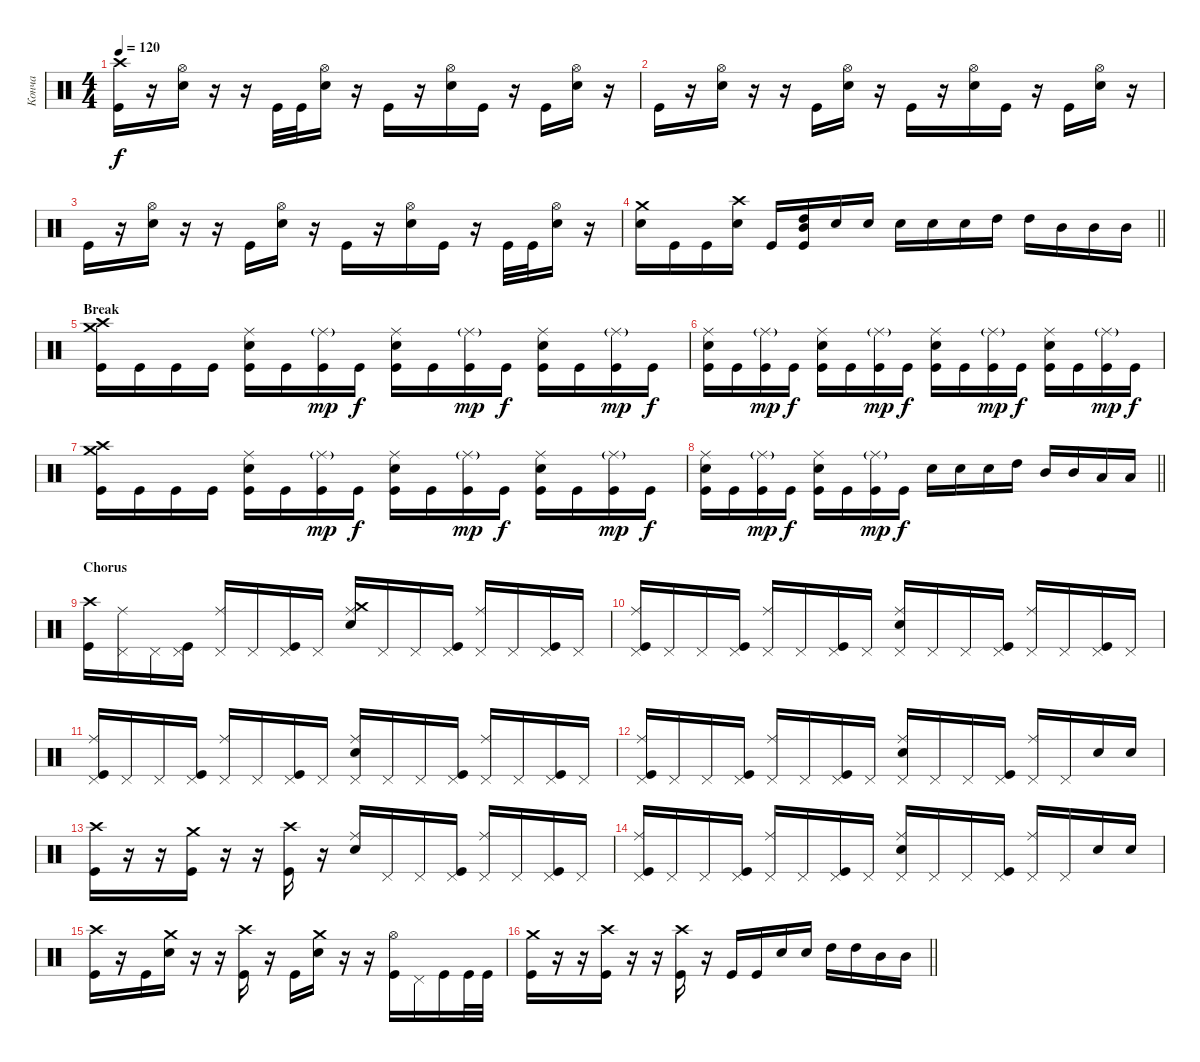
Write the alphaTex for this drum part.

\track ("Конча" "Конча") {instrument percussion}
\staff {score}
\articulation defaults
\ts (4 4)
\tempo 120
\clef neutral
\ks c
("Kick (hit)" "Crash high (hit)").16{dy f} r.16 ("Hi-Hat (open)" "Electric Snare (hit)").16 r.16 r.16 "Kick (hit)".32 "Kick (hit)".32 ("Hi-Hat (open)" "Electric Snare (hit)").16 r.16 "Kick (hit)".16 r.16 ("Hi-Hat (open)" "Electric Snare (hit)").16 "Kick (hit)".16 r.16 "Kick (hit)".16 ("Hi-Hat (open)" "Electric Snare (hit)").16 r.16 |
"Kick (hit)".16 r.16 ("Hi-Hat (open)" "Electric Snare (hit)").16 r.16 r.16 "Kick (hit)".16 ("Hi-Hat (open)" "Electric Snare (hit)").16 r.16 "Kick (hit)".16 r.16 ("Hi-Hat (open)" "Electric Snare (hit)").16 "Kick (hit)".16 r.16 "Kick (hit)".16 ("Hi-Hat (open)" "Electric Snare (hit)").16 r.16 |
"Kick (hit)".16 r.16 ("Hi-Hat (open)" "Electric Snare (hit)").16 r.16 r.16 "Kick (hit)".16 ("Hi-Hat (open)" "Electric Snare (hit)").16 r.16 "Kick (hit)".16 r.16 ("Hi-Hat (open)" "Electric Snare (hit)").16 "Kick (hit)".16 r.16 "Kick (hit)".32 "Kick (hit)".32 ("Hi-Hat (open)" "Electric Snare (hit)").16 r.16 |
\barLineRight lightlight
("Crash medium (hit)" "Electric Snare (hit)").16 "Kick (hit)".16 "Kick (hit)".16 ("Crash high (hit)" "Electric Snare (hit)").16 "Kick (hit)".16 ("High Tom (hit)" "Mid Tom (hit)" "Kick (hit)").16 "Electric Snare (hit)".16 "Electric Snare (hit)".16 "Electric Snare (hit)".16 "Electric Snare (hit)".16 "Electric Snare (hit)".16 "High Tom (hit)".16 "High Tom (hit)".16 "Mid Tom (hit)".16 "Mid Tom (hit)".16 "Mid Tom (hit)".16 |
\section ("" "Break")
("Crash medium (hit)" "Kick (hit)" "Crash high (hit)").16 "Kick (hit)".16 "Kick (hit)".16 "Kick (hit)".16 ("Electric Snare (hit)" "Ride (middle)" "Kick (hit)").16 "Kick (hit)".16 ("Ride (middle)"{g} "Kick (hit)").16{dy mp} "Kick (hit)".16{dy f} ("Electric Snare (hit)" "Ride (middle)" "Kick (hit)").16 "Kick (hit)".16 ("Ride (middle)"{g} "Kick (hit)").16{dy mp} "Kick (hit)".16{dy f} ("Electric Snare (hit)" "Ride (middle)" "Kick (hit)").16 "Kick (hit)".16 ("Ride (middle)"{g} "Kick (hit)").16{dy mp} "Kick (hit)".16{dy f} |
("Electric Snare (hit)" "Ride (middle)" "Kick (hit)").16 "Kick (hit)".16 ("Ride (middle)"{g} "Kick (hit)").16{dy mp} "Kick (hit)".16{dy f} ("Electric Snare (hit)" "Ride (middle)" "Kick (hit)").16 "Kick (hit)".16 ("Ride (middle)"{g} "Kick (hit)").16{dy mp} "Kick (hit)".16{dy f} ("Electric Snare (hit)" "Ride (middle)" "Kick (hit)").16 "Kick (hit)".16 ("Ride (middle)"{g} "Kick (hit)").16{dy mp} "Kick (hit)".16{dy f} ("Electric Snare (hit)" "Ride (middle)" "Kick (hit)").16 "Kick (hit)".16 ("Ride (middle)"{g} "Kick (hit)").16{dy mp} "Kick (hit)".16{dy f} |
("Crash medium (hit)" "Kick (hit)" "Crash high (hit)").16 "Kick (hit)".16 "Kick (hit)".16 "Kick (hit)".16 ("Electric Snare (hit)" "Ride (middle)" "Kick (hit)").16 "Kick (hit)".16 ("Ride (middle)"{g} "Kick (hit)").16{dy mp} "Kick (hit)".16{dy f} ("Electric Snare (hit)" "Ride (middle)" "Kick (hit)").16 "Kick (hit)".16 ("Ride (middle)"{g} "Kick (hit)").16{dy mp} "Kick (hit)".16{dy f} ("Electric Snare (hit)" "Ride (middle)" "Kick (hit)").16 "Kick (hit)".16 ("Ride (middle)"{g} "Kick (hit)").16{dy mp} "Kick (hit)".16{dy f} |
\barLineRight lightlight
("Electric Snare (hit)" "Ride (middle)" "Kick (hit)").16 "Kick (hit)".16 ("Ride (middle)"{g} "Kick (hit)").16{dy mp} "Kick (hit)".16{dy f} ("Electric Snare (hit)" "Ride (middle)" "Kick (hit)").16 "Kick (hit)".16 ("Ride (middle)"{g} "Kick (hit)").16{dy mp} "Kick (hit)".16{dy f} "Electric Snare (hit)".16 "Electric Snare (hit)".16 "Electric Snare (hit)".16 "High Tom (hit)".16 "Mid Tom (hit)".16 "Mid Tom (hit)".16 "Low Tom (hit)".16 "Low Tom (hit)".16 |
\section ("" "Chorus")
("Crash high (hit)" "Kick (hit)").16 ("Ride (middle)" "Pedal Hi-Hat (hit)").16 "Pedal Hi-Hat (hit)".16 ("Pedal Hi-Hat (hit)" "Kick (hit)").16 ("Ride (middle)" "Pedal Hi-Hat (hit)").16 "Pedal Hi-Hat (hit)".16 ("Pedal Hi-Hat (hit)" "Kick (hit)").16 "Pedal Hi-Hat (hit)".16 ("Ride (middle)" "Crash medium (hit)" "Electric Snare (hit)").16 "Pedal Hi-Hat (hit)".16 "Pedal Hi-Hat (hit)".16 ("Pedal Hi-Hat (hit)" "Kick (hit)").16 ("Ride (middle)" "Pedal Hi-Hat (hit)").16 "Pedal Hi-Hat (hit)".16 ("Pedal Hi-Hat (hit)" "Kick (hit)").16 "Pedal Hi-Hat (hit)".16 |
("Ride (middle)" "Pedal Hi-Hat (hit)" "Kick (hit)").16 "Pedal Hi-Hat (hit)".16 "Pedal Hi-Hat (hit)".16 ("Pedal Hi-Hat (hit)" "Kick (hit)").16 ("Ride (middle)" "Pedal Hi-Hat (hit)").16 "Pedal Hi-Hat (hit)".16 ("Pedal Hi-Hat (hit)" "Kick (hit)").16 "Pedal Hi-Hat (hit)".16 ("Ride (middle)" "Pedal Hi-Hat (hit)" "Electric Snare (hit)").16 "Pedal Hi-Hat (hit)".16 "Pedal Hi-Hat (hit)".16 ("Pedal Hi-Hat (hit)" "Kick (hit)").16 ("Ride (middle)" "Pedal Hi-Hat (hit)").16 "Pedal Hi-Hat (hit)".16 ("Pedal Hi-Hat (hit)" "Kick (hit)").16 "Pedal Hi-Hat (hit)".16 |
("Ride (middle)" "Pedal Hi-Hat (hit)" "Kick (hit)").16 "Pedal Hi-Hat (hit)".16 "Pedal Hi-Hat (hit)".16 ("Pedal Hi-Hat (hit)" "Kick (hit)").16 ("Ride (middle)" "Pedal Hi-Hat (hit)").16 "Pedal Hi-Hat (hit)".16 ("Pedal Hi-Hat (hit)" "Kick (hit)").16 "Pedal Hi-Hat (hit)".16 ("Ride (middle)" "Pedal Hi-Hat (hit)" "Electric Snare (hit)").16 "Pedal Hi-Hat (hit)".16 "Pedal Hi-Hat (hit)".16 ("Pedal Hi-Hat (hit)" "Kick (hit)").16 ("Ride (middle)" "Pedal Hi-Hat (hit)").16 "Pedal Hi-Hat (hit)".16 ("Pedal Hi-Hat (hit)" "Kick (hit)").16 "Pedal Hi-Hat (hit)".16 |
("Ride (middle)" "Pedal Hi-Hat (hit)" "Kick (hit)").16 "Pedal Hi-Hat (hit)".16 "Pedal Hi-Hat (hit)".16 ("Pedal Hi-Hat (hit)" "Kick (hit)").16 ("Ride (middle)" "Pedal Hi-Hat (hit)").16 "Pedal Hi-Hat (hit)".16 ("Pedal Hi-Hat (hit)" "Kick (hit)").16 "Pedal Hi-Hat (hit)".16 ("Ride (middle)" "Pedal Hi-Hat (hit)" "Electric Snare (hit)").16 "Pedal Hi-Hat (hit)".16 "Pedal Hi-Hat (hit)".16 ("Pedal Hi-Hat (hit)" "Kick (hit)").16 ("Ride (middle)" "Pedal Hi-Hat (hit)").16 "Pedal Hi-Hat (hit)".16 "Electric Snare (hit)".16 "Electric Snare (hit)".16 |
("Crash high (hit)" "Kick (hit)").16 r.16 r.16 ("Crash medium (hit)" "Kick (hit)").16 r.16 r.16 ("Crash high (hit)" "Kick (hit)").16 r.16 ("Ride (middle)" "Electric Snare (hit)").16 "Pedal Hi-Hat (hit)".16 "Pedal Hi-Hat (hit)".16 ("Pedal Hi-Hat (hit)" "Kick (hit)").16 ("Pedal Hi-Hat (hit)" "Ride (middle)").16 "Pedal Hi-Hat (hit)".16 ("Pedal Hi-Hat (hit)" "Kick (hit)").16 "Pedal Hi-Hat (hit)".16 |
("Ride (middle)" "Pedal Hi-Hat (hit)" "Kick (hit)").16 "Pedal Hi-Hat (hit)".16 "Pedal Hi-Hat (hit)".16 ("Pedal Hi-Hat (hit)" "Kick (hit)").16 ("Ride (middle)" "Pedal Hi-Hat (hit)").16 "Pedal Hi-Hat (hit)".16 ("Pedal Hi-Hat (hit)" "Kick (hit)").16 "Pedal Hi-Hat (hit)".16 ("Ride (middle)" "Pedal Hi-Hat (hit)" "Electric Snare (hit)").16 "Pedal Hi-Hat (hit)".16 "Pedal Hi-Hat (hit)".16 ("Pedal Hi-Hat (hit)" "Kick (hit)").16 ("Ride (middle)" "Pedal Hi-Hat (hit)").16 "Pedal Hi-Hat (hit)".16 "Electric Snare (hit)".16 "Electric Snare (hit)".16 |
("Crash high (hit)" "Kick (hit)").16 r.16 "Kick (hit)".16 ("Crash medium (hit)" "Electric Snare (hit)").16 r.16 r.16 ("Crash high (hit)" "Kick (hit)").16 r.16 "Kick (hit)".16 ("Crash medium (hit)" "Electric Snare (hit)").16 r.16 r.16 ("Hi-Hat (open)" "Kick (hit)").16 "Pedal Hi-Hat (hit)".16 "Kick (hit)".16 "Kick (hit)".32 "Kick (hit)".32 |
\barLineRight lightlight
("Crash medium (hit)" "Kick (hit)").16 r.16 r.16 ("Crash high (hit)" "Kick (hit)").16 r.16 r.16 ("Crash high (hit)" "Kick (hit)").16 r.16 "Kick (hit)".16 "Kick (hit)".16 "Electric Snare (hit)".16 "Electric Snare (hit)".16 "High Tom (hit)".16 "High Tom (hit)".16 "Mid Tom (hit)".16 "Mid Tom (hit)".16
